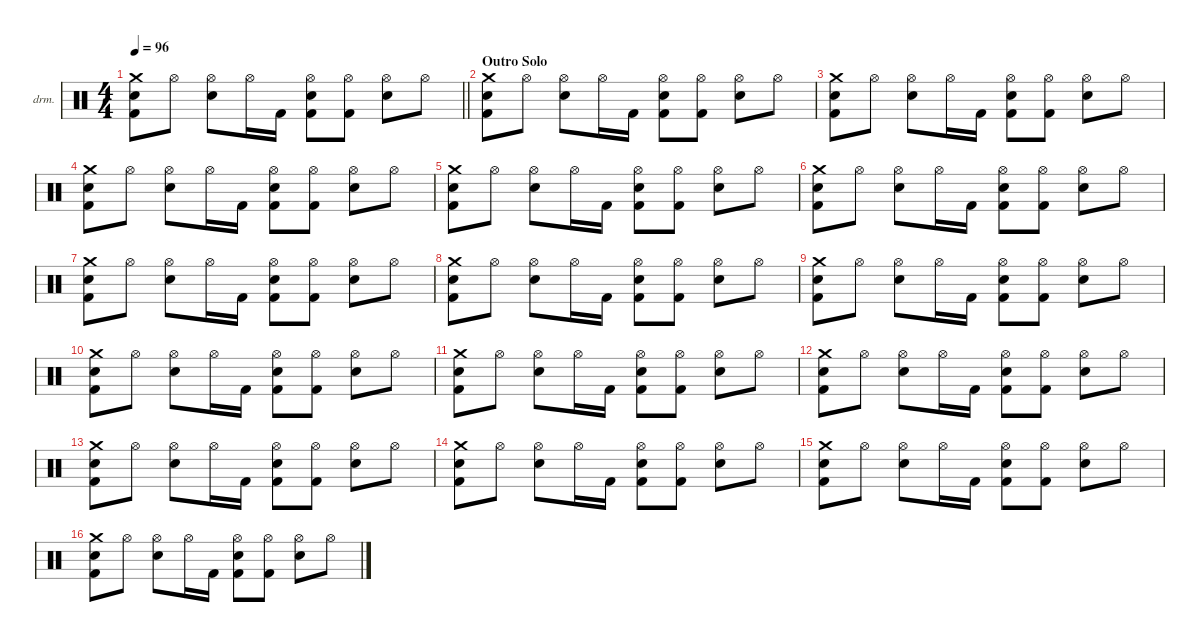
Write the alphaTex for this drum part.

\defaultSystemsLayout 4
\hideDynamics
\bracketExtendMode nobrackets
\firstSystemTrackNameOrientation horizontal
\otherSystemsTrackNameOrientation horizontal
\track ("Percussion" "drm.") {instrument percussion}
\staff {score}
\articulation defaults
\ts (4 4)
\tempo 96
\clef neutral
\barLineRight lightlight
\ks c
("Crash medium (hit)" "Snare (hit) 2" "Kick (hit) 2").8{dy f} "Hi-Hat (open)".8 ("Hi-Hat (open)" "Snare (hit) 2").8 "Hi-Hat (open)".16 "Kick (hit) 2".16 ("Hi-Hat (open)" "Snare (hit) 2" "Kick (hit) 2").8 ("Hi-Hat (open)" "Kick (hit) 2").8 ("Hi-Hat (open)" "Snare (hit) 2").8 "Hi-Hat (open)".8 |
\section ("" "Outro Solo")
("Crash medium (hit)" "Snare (hit) 2" "Kick (hit) 2").8 "Hi-Hat (open)".8 ("Hi-Hat (open)" "Snare (hit) 2").8 "Hi-Hat (open)".16 "Kick (hit) 2".16 ("Hi-Hat (open)" "Snare (hit) 2" "Kick (hit) 2").8 ("Hi-Hat (open)" "Kick (hit) 2").8 ("Hi-Hat (open)" "Snare (hit) 2").8 "Hi-Hat (open)".8 |
("Crash medium (hit)" "Snare (hit) 2" "Kick (hit) 2").8 "Hi-Hat (open)".8 ("Hi-Hat (open)" "Snare (hit) 2").8 "Hi-Hat (open)".16 "Kick (hit) 2".16 ("Hi-Hat (open)" "Snare (hit) 2" "Kick (hit) 2").8 ("Hi-Hat (open)" "Kick (hit) 2").8 ("Hi-Hat (open)" "Snare (hit) 2").8 "Hi-Hat (open)".8 |
("Crash medium (hit)" "Snare (hit) 2" "Kick (hit) 2").8 "Hi-Hat (open)".8 ("Hi-Hat (open)" "Snare (hit) 2").8 "Hi-Hat (open)".16 "Kick (hit) 2".16 ("Hi-Hat (open)" "Snare (hit) 2" "Kick (hit) 2").8 ("Hi-Hat (open)" "Kick (hit) 2").8 ("Hi-Hat (open)" "Snare (hit) 2").8 "Hi-Hat (open)".8 |
("Crash medium (hit)" "Snare (hit) 2" "Kick (hit) 2").8 "Hi-Hat (open)".8 ("Hi-Hat (open)" "Snare (hit) 2").8 "Hi-Hat (open)".16 "Kick (hit) 2".16 ("Hi-Hat (open)" "Snare (hit) 2" "Kick (hit) 2").8 ("Hi-Hat (open)" "Kick (hit) 2").8 ("Hi-Hat (open)" "Snare (hit) 2").8 "Hi-Hat (open)".8 |
("Crash medium (hit)" "Snare (hit) 2" "Kick (hit) 2").8 "Hi-Hat (open)".8 ("Hi-Hat (open)" "Snare (hit) 2").8 "Hi-Hat (open)".16 "Kick (hit) 2".16 ("Hi-Hat (open)" "Snare (hit) 2" "Kick (hit) 2").8 ("Hi-Hat (open)" "Kick (hit) 2").8 ("Hi-Hat (open)" "Snare (hit) 2").8 "Hi-Hat (open)".8 |
("Crash medium (hit)" "Snare (hit) 2" "Kick (hit) 2").8 "Hi-Hat (open)".8 ("Hi-Hat (open)" "Snare (hit) 2").8 "Hi-Hat (open)".16 "Kick (hit) 2".16 ("Hi-Hat (open)" "Snare (hit) 2" "Kick (hit) 2").8 ("Hi-Hat (open)" "Kick (hit) 2").8 ("Hi-Hat (open)" "Snare (hit) 2").8 "Hi-Hat (open)".8 |
("Crash medium (hit)" "Snare (hit) 2" "Kick (hit) 2").8 "Hi-Hat (open)".8 ("Hi-Hat (open)" "Snare (hit) 2").8 "Hi-Hat (open)".16 "Kick (hit) 2".16 ("Hi-Hat (open)" "Snare (hit) 2" "Kick (hit) 2").8 ("Hi-Hat (open)" "Kick (hit) 2").8 ("Hi-Hat (open)" "Snare (hit) 2").8 "Hi-Hat (open)".8 |
("Crash medium (hit)" "Snare (hit) 2" "Kick (hit) 2").8 "Hi-Hat (open)".8 ("Hi-Hat (open)" "Snare (hit) 2").8 "Hi-Hat (open)".16 "Kick (hit) 2".16 ("Hi-Hat (open)" "Snare (hit) 2" "Kick (hit) 2").8 ("Hi-Hat (open)" "Kick (hit) 2").8 ("Hi-Hat (open)" "Snare (hit) 2").8 "Hi-Hat (open)".8 |
("Crash medium (hit)" "Snare (hit) 2" "Kick (hit) 2").8 "Hi-Hat (open)".8 ("Hi-Hat (open)" "Snare (hit) 2").8 "Hi-Hat (open)".16 "Kick (hit) 2".16 ("Hi-Hat (open)" "Snare (hit) 2" "Kick (hit) 2").8 ("Hi-Hat (open)" "Kick (hit) 2").8 ("Hi-Hat (open)" "Snare (hit) 2").8 "Hi-Hat (open)".8 |
("Crash medium (hit)" "Snare (hit) 2" "Kick (hit) 2").8 "Hi-Hat (open)".8 ("Hi-Hat (open)" "Snare (hit) 2").8 "Hi-Hat (open)".16 "Kick (hit) 2".16 ("Hi-Hat (open)" "Snare (hit) 2" "Kick (hit) 2").8 ("Hi-Hat (open)" "Kick (hit) 2").8 ("Hi-Hat (open)" "Snare (hit) 2").8 "Hi-Hat (open)".8 |
("Crash medium (hit)" "Snare (hit) 2" "Kick (hit) 2").8 "Hi-Hat (open)".8 ("Hi-Hat (open)" "Snare (hit) 2").8 "Hi-Hat (open)".16 "Kick (hit) 2".16 ("Hi-Hat (open)" "Snare (hit) 2" "Kick (hit) 2").8 ("Hi-Hat (open)" "Kick (hit) 2").8 ("Hi-Hat (open)" "Snare (hit) 2").8 "Hi-Hat (open)".8 |
("Crash medium (hit)" "Snare (hit) 2" "Kick (hit) 2").8 "Hi-Hat (open)".8 ("Hi-Hat (open)" "Snare (hit) 2").8 "Hi-Hat (open)".16 "Kick (hit) 2".16 ("Hi-Hat (open)" "Snare (hit) 2" "Kick (hit) 2").8 ("Hi-Hat (open)" "Kick (hit) 2").8 ("Hi-Hat (open)" "Snare (hit) 2").8 "Hi-Hat (open)".8 |
("Crash medium (hit)" "Snare (hit) 2" "Kick (hit) 2").8 "Hi-Hat (open)".8 ("Hi-Hat (open)" "Snare (hit) 2").8 "Hi-Hat (open)".16 "Kick (hit) 2".16 ("Hi-Hat (open)" "Snare (hit) 2" "Kick (hit) 2").8 ("Hi-Hat (open)" "Kick (hit) 2").8 ("Hi-Hat (open)" "Snare (hit) 2").8 "Hi-Hat (open)".8 |
("Crash medium (hit)" "Snare (hit) 2" "Kick (hit) 2").8 "Hi-Hat (open)".8 ("Hi-Hat (open)" "Snare (hit) 2").8 "Hi-Hat (open)".16 "Kick (hit) 2".16 ("Hi-Hat (open)" "Snare (hit) 2" "Kick (hit) 2").8 ("Hi-Hat (open)" "Kick (hit) 2").8 ("Hi-Hat (open)" "Snare (hit) 2").8 "Hi-Hat (open)".8 |
("Crash medium (hit)" "Snare (hit) 2" "Kick (hit) 2").8 "Hi-Hat (open)".8 ("Hi-Hat (open)" "Snare (hit) 2").8 "Hi-Hat (open)".16 "Kick (hit) 2".16 ("Hi-Hat (open)" "Snare (hit) 2" "Kick (hit) 2").8 ("Hi-Hat (open)" "Kick (hit) 2").8 ("Hi-Hat (open)" "Snare (hit) 2").8 "Hi-Hat (open)".8
